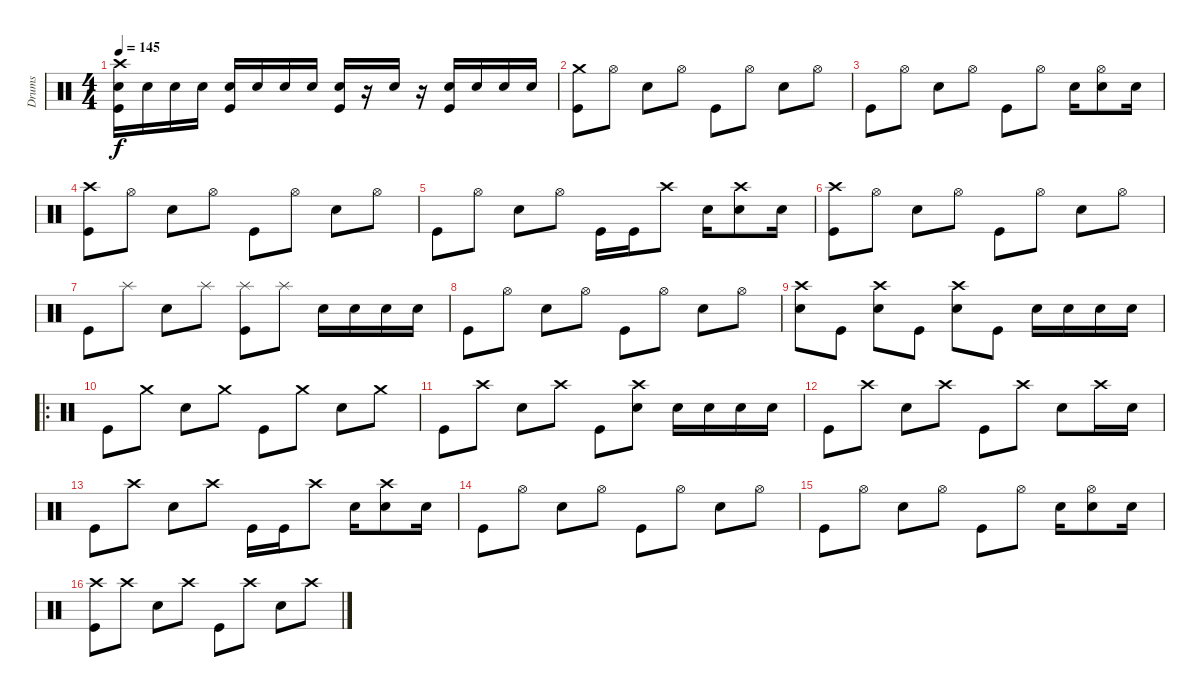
\track ("Drums" "Drums") {instrument percussion}
\staff {score}
\articulation defaults
\ts (4 4)
\tempo 145
\clef neutral
\ks c
("Crash high (hit)" "Electric Snare (hit)" "Kick (hit)").16{dy f} "Electric Snare (hit)".16 "Electric Snare (hit)".16 "Electric Snare (hit)".16 ("Electric Snare (hit)" "Kick (hit)").16 "Electric Snare (hit)".16 "Electric Snare (hit)".16 "Electric Snare (hit)".16 ("Electric Snare (hit)" "Kick (hit)").16 r.16 "Electric Snare (hit)".16 r.16 ("Electric Snare (hit)" "Kick (hit)").16 "Electric Snare (hit)".16 "Electric Snare (hit)".16 "Electric Snare (hit)".16 |
("Crash medium (hit)" "Kick (hit)").8 "Hi-Hat (open)".8 "Electric Snare (hit)".8 "Hi-Hat (open)".8 "Kick (hit)".8 "Hi-Hat (open)".8 "Electric Snare (hit)".8 "Hi-Hat (open)".8 |
"Kick (hit)".8 "Hi-Hat (open)".8 "Electric Snare (hit)".8 "Hi-Hat (open)".8 "Kick (hit)".8 "Hi-Hat (open)".8 "Electric Snare (hit)".16 ("Electric Snare (hit)" "Hi-Hat (open)").8 "Electric Snare (hit)".16 |
("Crash high (hit)" "Kick (hit)").8 "Hi-Hat (open)".8 "Electric Snare (hit)".8 "Hi-Hat (open)".8 "Kick (hit)".8 "Hi-Hat (open)".8 "Electric Snare (hit)".8 "Hi-Hat (open)".8 |
"Kick (hit)".8 "Hi-Hat (open)".8 "Electric Snare (hit)".8 "Hi-Hat (open)".8 "Kick (hit)".16 "Kick (hit)".16 "Crash high (hit)".8 "Electric Snare (hit)".16 ("Crash high (hit)" "Electric Snare (hit)").8 "Electric Snare (hit)".16 |
("Crash high (hit)" "Kick (hit)").8 "Hi-Hat (open)".8 "Electric Snare (hit)".8 "Hi-Hat (open)".8 "Kick (hit)".8 "Hi-Hat (open)".8 "Electric Snare (hit)".8 "Hi-Hat (open)".8 |
"Kick (hit)".8 "Splash (hit)".8 "Electric Snare (hit)".8 "Splash (hit)".8 ("Splash (hit)" "Kick (hit)").8 "Splash (hit)".8 "Electric Snare (hit)".16 "Electric Snare (hit)".16 "Electric Snare (hit)".16 "Electric Snare (hit)".16 |
"Kick (hit)".8 "Hi-Hat (open)".8 "Electric Snare (hit)".8 "Hi-Hat (open)".8 "Kick (hit)".8 "Hi-Hat (open)".8 "Electric Snare (hit)".8 "Hi-Hat (open)".8 |
("Crash high (hit)" "Electric Snare (hit)").8 "Kick (hit)".8 ("Crash high (hit)" "Electric Snare (hit)").8 "Kick (hit)".8 ("Crash high (hit)" "Electric Snare (hit)").8 "Kick (hit)".8 "Electric Snare (hit)".16 "Electric Snare (hit)".16 "Electric Snare (hit)".16 "Electric Snare (hit)".16 |
\ro "Kick (hit)".8 "Crash medium (hit)".8 "Electric Snare (hit)".8 "Crash medium (hit)".8 "Kick (hit)".8 "Crash medium (hit)".8 "Electric Snare (hit)".8 "Crash medium (hit)".8
|
"Kick (hit)".8 "Crash high (hit)".8 "Electric Snare (hit)".8 "Crash high (hit)".8 "Kick (hit)".8 ("Crash high (hit)" "Electric Snare (hit)").8 "Electric Snare (hit)".16 "Electric Snare (hit)".16 "Electric Snare (hit)".16 "Electric Snare (hit)".16 |
"Kick (hit)".8 "Crash high (hit)".8 "Electric Snare (hit)".8 "Crash high (hit)".8 "Kick (hit)".8 "Crash high (hit)".8 "Electric Snare (hit)".8 "Crash high (hit)".16 "Electric Snare (hit)".16 |
"Kick (hit)".8 "Crash high (hit)".8 "Electric Snare (hit)".8 "Crash high (hit)".8 "Kick (hit)".16 "Kick (hit)".16 "Crash high (hit)".8 "Electric Snare (hit)".16 ("Crash high (hit)" "Electric Snare (hit)").8 "Electric Snare (hit)".16 |
"Kick (hit)".8 "Hi-Hat (open)".8 "Electric Snare (hit)".8 "Hi-Hat (open)".8 "Kick (hit)".8 "Hi-Hat (open)".8 "Electric Snare (hit)".8 "Hi-Hat (open)".8 |
"Kick (hit)".8 "Hi-Hat (open)".8 "Electric Snare (hit)".8 "Hi-Hat (open)".8 "Kick (hit)".8 "Hi-Hat (open)".8 "Electric Snare (hit)".16 ("Electric Snare (hit)" "Hi-Hat (open)").8 "Electric Snare (hit)".16 |
("Crash high (hit)" "Kick (hit)").8 "Crash high (hit)".8 "Electric Snare (hit)".8 "Crash high (hit)".8 "Kick (hit)".8 "Crash high (hit)".8 "Electric Snare (hit)".8 "Crash high (hit)".8
